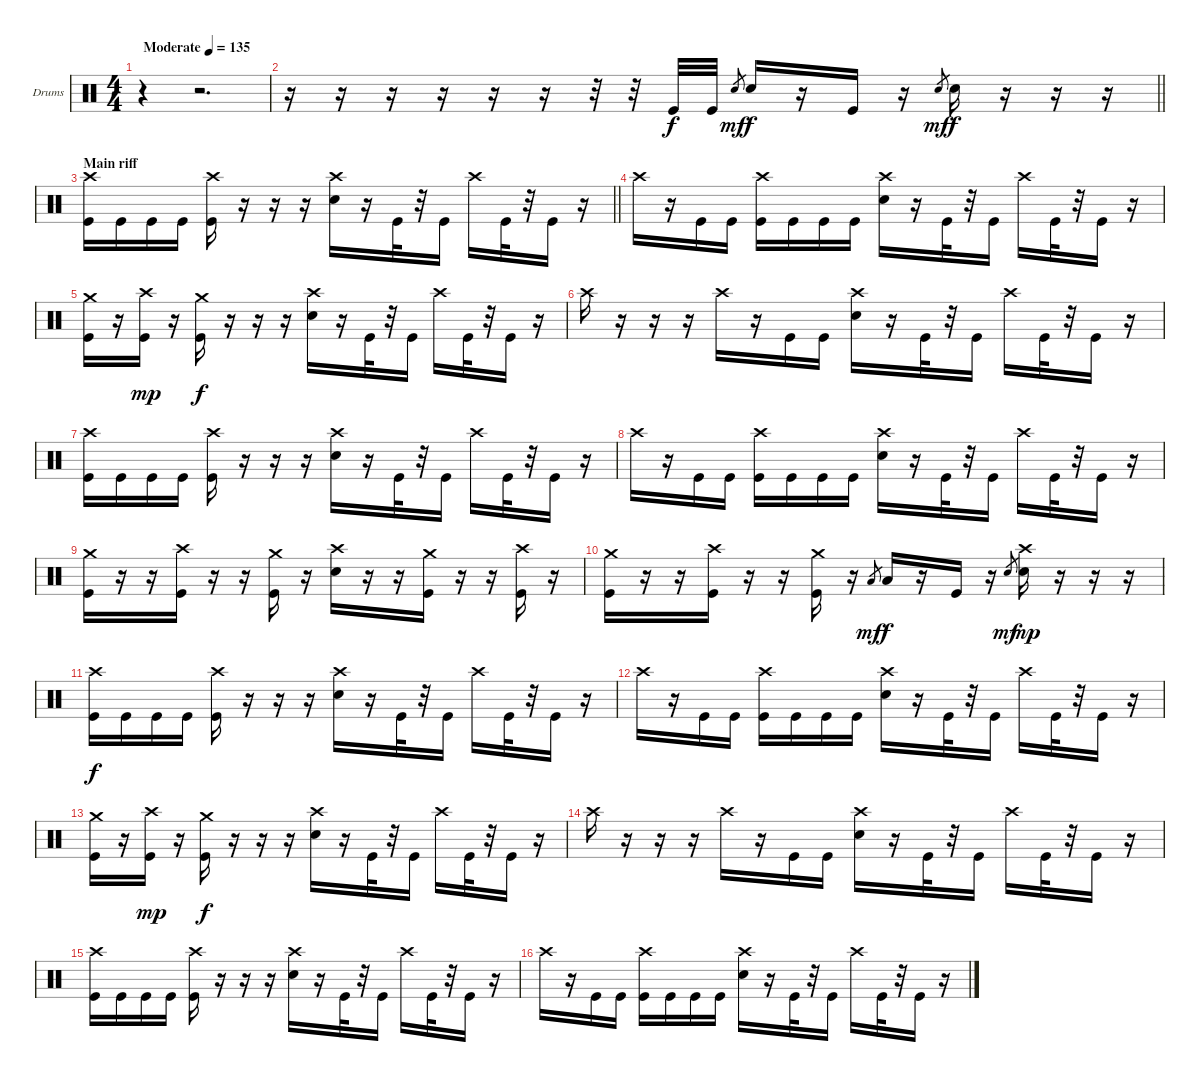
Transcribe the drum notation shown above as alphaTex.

\bracketExtendMode groupsimilarinstruments
\firstSystemTrackNameOrientation horizontal
\otherSystemsTrackNameOrientation horizontal
\track ("Drumkit" "Drums") {instrument percussion}
\staff {score}
\articulation defaults
\ts (4 4)
\beaming (8 2 2 2 2)
\tempo (135 "Moderate")
\clef neutral
\ks c
r.4{dy f} r.2{d} |
\barLineRight lightlight
r.16 r.16 r.16 r.16 r.16 r.16 r.32 r.32 "Kick (hit)".32 "Kick (hit)".32 "Snare (hit) 2".8{gr dy mf} "Snare (hit) 2".16{dy f} r.16 "Kick (hit)".16 r.16 "Snare (hit) 2".8{gr dy mf} "Snare (hit) 2".16{dy f} r.16 r.16 r.16 |
\section ("" "Main riff")
\barLineRight lightlight
("Crash high (hit)" "Kick (hit)").16 "Kick (hit)".16 "Kick (hit)".16 "Kick (hit)".16 ("Crash high (hit)" "Kick (hit)").16 r.16 r.16 r.16 ("Crash high (hit)" "Snare (hit) 2").16 r.16 "Kick (hit)".32 r.32 "Kick (hit)".16 "Crash high (hit)".16 "Kick (hit)".32 r.32 "Kick (hit)".16 r.16 |
"Crash high (hit)".16 r.16 "Kick (hit)".16 "Kick (hit)".16 ("Crash high (hit)" "Kick (hit)").16 "Kick (hit)".16 "Kick (hit)".16 "Kick (hit)".16 ("Crash high (hit)" "Snare (hit) 2").16 r.16 "Kick (hit)".32 r.32 "Kick (hit)".16 "Crash high (hit)".16 "Kick (hit)".32 r.32 "Kick (hit)".16 r.16 |
("Crash medium (hit)" "Kick (hit)").16 r.16 ("Crash high (hit)" "Kick (hit)").16{dy mp} r.16 ("Crash medium (hit)" "Kick (hit)").16{dy f} r.16 r.16 r.16 ("Crash high (hit)" "Snare (hit) 2").16 r.16 "Kick (hit)".32 r.32 "Kick (hit)".16 "Crash high (hit)".16 "Kick (hit)".32 r.32 "Kick (hit)".16 r.16 |
"Crash high (hit)".16 r.16 r.16 r.16 "Crash high (hit)".16 r.16 "Kick (hit)".16 "Kick (hit)".16 ("Crash high (hit)" "Snare (hit) 2").16 r.16 "Kick (hit)".32 r.32 "Kick (hit)".16 "Crash high (hit)".16 "Kick (hit)".32 r.32 "Kick (hit)".16 r.16 |
("Crash high (hit)" "Kick (hit)").16 "Kick (hit)".16 "Kick (hit)".16 "Kick (hit)".16 ("Crash high (hit)" "Kick (hit)").16 r.16 r.16 r.16 ("Crash high (hit)" "Snare (hit) 2").16 r.16 "Kick (hit)".32 r.32 "Kick (hit)".16 "Crash high (hit)".16 "Kick (hit)".32 r.32 "Kick (hit)".16 r.16 |
"Crash high (hit)".16 r.16 "Kick (hit)".16 "Kick (hit)".16 ("Crash high (hit)" "Kick (hit)").16 "Kick (hit)".16 "Kick (hit)".16 "Kick (hit)".16 ("Crash high (hit)" "Snare (hit) 2").16 r.16 "Kick (hit)".32 r.32 "Kick (hit)".16 "Crash high (hit)".16 "Kick (hit)".32 r.32 "Kick (hit)".16 r.16 |
("Crash medium (hit)" "Kick (hit)").16 r.16 r.16 ("Crash high (hit)" "Kick (hit)").16 r.16 r.16 ("Crash medium (hit)" "Kick (hit)").16 r.16 ("Crash high (hit)" "Snare (hit) 2").16 r.16 r.16 ("Crash medium (hit)" "Kick (hit)").16 r.16 r.16 ("Crash high (hit)" "Kick (hit)").16 r.16 |
("Crash medium (hit)" "Kick (hit)").16 r.16 r.16 ("Crash high (hit)" "Kick (hit)").16 r.16 r.16 ("Crash medium (hit)" "Kick (hit)").16 r.16 "Low Tom (hit)".8{gr dy mf} "Low Tom (hit)".16{dy f} r.16 "Kick (hit)".16 r.16 "Snare (hit) 2".8{gr dy mf} ("Crash high (hit)" "Snare (hit) 2").16{dy mp} r.16 r.16 r.16 |
("Crash high (hit)" "Kick (hit)").16{dy f} "Kick (hit)".16 "Kick (hit)".16 "Kick (hit)".16 ("Crash high (hit)" "Kick (hit)").16 r.16 r.16 r.16 ("Crash high (hit)" "Snare (hit) 2").16 r.16 "Kick (hit)".32 r.32 "Kick (hit)".16 "Crash high (hit)".16 "Kick (hit)".32 r.32 "Kick (hit)".16 r.16 |
"Crash high (hit)".16 r.16 "Kick (hit)".16 "Kick (hit)".16 ("Crash high (hit)" "Kick (hit)").16 "Kick (hit)".16 "Kick (hit)".16 "Kick (hit)".16 ("Crash high (hit)" "Snare (hit) 2").16 r.16 "Kick (hit)".32 r.32 "Kick (hit)".16 "Crash high (hit)".16 "Kick (hit)".32 r.32 "Kick (hit)".16 r.16 |
("Crash medium (hit)" "Kick (hit)").16 r.16 ("Crash high (hit)" "Kick (hit)").16{dy mp} r.16 ("Crash medium (hit)" "Kick (hit)").16{dy f} r.16 r.16 r.16 ("Crash high (hit)" "Snare (hit) 2").16 r.16 "Kick (hit)".32 r.32 "Kick (hit)".16 "Crash high (hit)".16 "Kick (hit)".32 r.32 "Kick (hit)".16 r.16 |
"Crash high (hit)".16 r.16 r.16 r.16 "Crash high (hit)".16 r.16 "Kick (hit)".16 "Kick (hit)".16 ("Crash high (hit)" "Snare (hit) 2").16 r.16 "Kick (hit)".32 r.32 "Kick (hit)".16 "Crash high (hit)".16 "Kick (hit)".32 r.32 "Kick (hit)".16 r.16 |
("Crash high (hit)" "Kick (hit)").16 "Kick (hit)".16 "Kick (hit)".16 "Kick (hit)".16 ("Crash high (hit)" "Kick (hit)").16 r.16 r.16 r.16 ("Crash high (hit)" "Snare (hit) 2").16 r.16 "Kick (hit)".32 r.32 "Kick (hit)".16 "Crash high (hit)".16 "Kick (hit)".32 r.32 "Kick (hit)".16 r.16 |
"Crash high (hit)".16 r.16 "Kick (hit)".16 "Kick (hit)".16 ("Crash high (hit)" "Kick (hit)").16 "Kick (hit)".16 "Kick (hit)".16 "Kick (hit)".16 ("Crash high (hit)" "Snare (hit) 2").16 r.16 "Kick (hit)".32 r.32 "Kick (hit)".16 "Crash high (hit)".16 "Kick (hit)".32 r.32 "Kick (hit)".16 r.16
